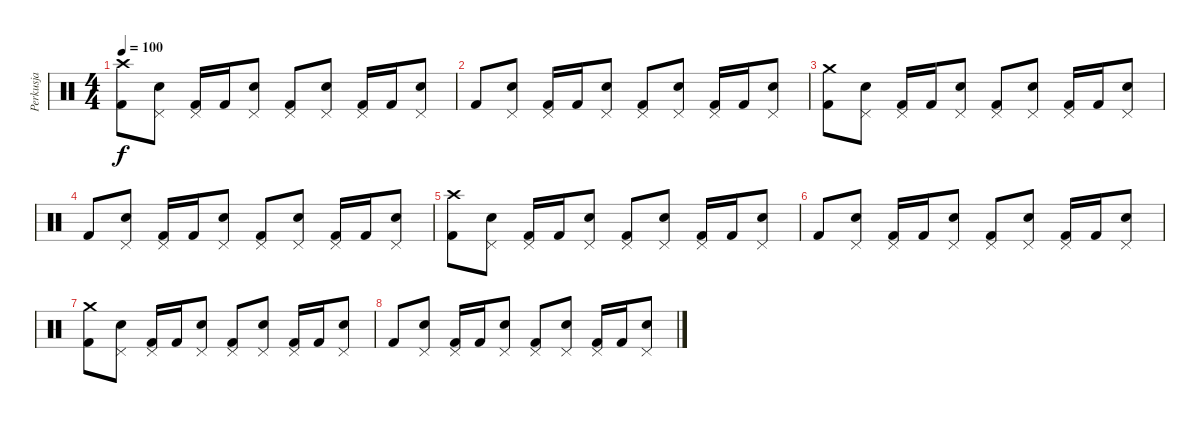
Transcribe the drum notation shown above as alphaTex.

\track ("Perkusja" "Perkusja") {instrument percussion}
\staff {score}
\articulation defaults
\ts (4 4)
\tempo 100
\clef neutral
\ks c
("Crash high (hit)" "Kick (hit) 2").8{dy f} ("Pedal Hi-Hat (hit)" "Snare (hit) 2").8 ("Pedal Hi-Hat (hit)" "Kick (hit) 2").16 "Kick (hit) 2".16 ("Pedal Hi-Hat (hit)" "Snare (hit) 2").8 ("Pedal Hi-Hat (hit)" "Kick (hit) 2").8 ("Pedal Hi-Hat (hit)" "Snare (hit) 2").8 ("Pedal Hi-Hat (hit)" "Kick (hit) 2").16 "Kick (hit) 2".16 ("Pedal Hi-Hat (hit)" "Snare (hit) 2").8 |
"Kick (hit) 2".8 ("Pedal Hi-Hat (hit)" "Snare (hit) 2").8 ("Pedal Hi-Hat (hit)" "Kick (hit) 2").16 "Kick (hit) 2".16 ("Pedal Hi-Hat (hit)" "Snare (hit) 2").8 ("Pedal Hi-Hat (hit)" "Kick (hit) 2").8 ("Pedal Hi-Hat (hit)" "Snare (hit) 2").8 ("Pedal Hi-Hat (hit)" "Kick (hit) 2").16 "Kick (hit) 2".16 ("Pedal Hi-Hat (hit)" "Snare (hit) 2").8 |
("Crash medium (hit)" "Kick (hit) 2").8 ("Pedal Hi-Hat (hit)" "Snare (hit) 2").8 ("Pedal Hi-Hat (hit)" "Kick (hit) 2").16 "Kick (hit) 2".16 ("Pedal Hi-Hat (hit)" "Snare (hit) 2").8 ("Pedal Hi-Hat (hit)" "Kick (hit) 2").8 ("Pedal Hi-Hat (hit)" "Snare (hit) 2").8 ("Pedal Hi-Hat (hit)" "Kick (hit) 2").16 "Kick (hit) 2".16 ("Pedal Hi-Hat (hit)" "Snare (hit) 2").8 |
"Kick (hit) 2".8 ("Pedal Hi-Hat (hit)" "Snare (hit) 2").8 ("Pedal Hi-Hat (hit)" "Kick (hit) 2").16 "Kick (hit) 2".16 ("Pedal Hi-Hat (hit)" "Snare (hit) 2").8 ("Pedal Hi-Hat (hit)" "Kick (hit) 2").8 ("Pedal Hi-Hat (hit)" "Snare (hit) 2").8 ("Pedal Hi-Hat (hit)" "Kick (hit) 2").16 "Kick (hit) 2".16 ("Pedal Hi-Hat (hit)" "Snare (hit) 2").8 |
("Crash high (hit)" "Kick (hit) 2").8 ("Pedal Hi-Hat (hit)" "Snare (hit) 2").8 ("Pedal Hi-Hat (hit)" "Kick (hit) 2").16 "Kick (hit) 2".16 ("Pedal Hi-Hat (hit)" "Snare (hit) 2").8 ("Pedal Hi-Hat (hit)" "Kick (hit) 2").8 ("Pedal Hi-Hat (hit)" "Snare (hit) 2").8 ("Pedal Hi-Hat (hit)" "Kick (hit) 2").16 "Kick (hit) 2".16 ("Pedal Hi-Hat (hit)" "Snare (hit) 2").8 |
"Kick (hit) 2".8 ("Pedal Hi-Hat (hit)" "Snare (hit) 2").8 ("Pedal Hi-Hat (hit)" "Kick (hit) 2").16 "Kick (hit) 2".16 ("Pedal Hi-Hat (hit)" "Snare (hit) 2").8 ("Pedal Hi-Hat (hit)" "Kick (hit) 2").8 ("Pedal Hi-Hat (hit)" "Snare (hit) 2").8 ("Pedal Hi-Hat (hit)" "Kick (hit) 2").16 "Kick (hit) 2".16 ("Pedal Hi-Hat (hit)" "Snare (hit) 2").8 |
("Crash medium (hit)" "Kick (hit) 2").8 ("Pedal Hi-Hat (hit)" "Snare (hit) 2").8 ("Pedal Hi-Hat (hit)" "Kick (hit) 2").16 "Kick (hit) 2".16 ("Pedal Hi-Hat (hit)" "Snare (hit) 2").8 ("Pedal Hi-Hat (hit)" "Kick (hit) 2").8 ("Pedal Hi-Hat (hit)" "Snare (hit) 2").8 ("Pedal Hi-Hat (hit)" "Kick (hit) 2").16 "Kick (hit) 2".16 ("Pedal Hi-Hat (hit)" "Snare (hit) 2").8 |
"Kick (hit) 2".8 ("Pedal Hi-Hat (hit)" "Snare (hit) 2").8 ("Pedal Hi-Hat (hit)" "Kick (hit) 2").16 "Kick (hit) 2".16 ("Pedal Hi-Hat (hit)" "Snare (hit) 2").8 ("Pedal Hi-Hat (hit)" "Kick (hit) 2").8 ("Pedal Hi-Hat (hit)" "Snare (hit) 2").8 ("Pedal Hi-Hat (hit)" "Kick (hit) 2").16 "Kick (hit) 2".16 ("Pedal Hi-Hat (hit)" "Snare (hit) 2").8
